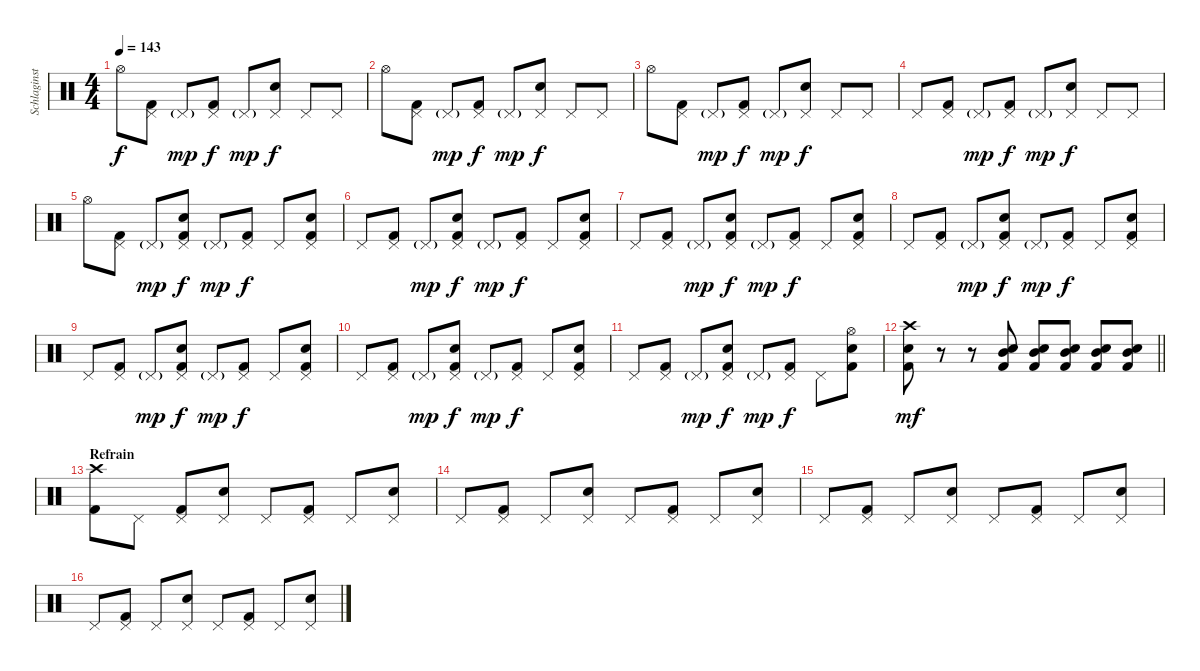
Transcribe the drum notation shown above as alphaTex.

\track ("Schlaginstrumente - Auswahl" "Schlaginst") {instrument percussion}
\staff {score}
\articulation defaults
\ts (4 4)
\tempo 143
\clef neutral
\ks c "Hi-Hat (open)".8{dy f}
("Pedal Hi-Hat (hit)" "Kick (hit) 2").8 "Pedal Hi-Hat (hit)"{g}.8{dy mp} ("Pedal Hi-Hat (hit)" "Kick (hit) 2").8{dy f} "Pedal Hi-Hat (hit)"{g}.8{dy mp} ("Pedal Hi-Hat (hit)" "Electric Snare (hit)").8{dy f} "Pedal Hi-Hat (hit)".8 "Pedal Hi-Hat (hit)".8 |
"Hi-Hat (open)".8 ("Pedal Hi-Hat (hit)" "Kick (hit) 2").8 "Pedal Hi-Hat (hit)"{g}.8{dy mp} ("Pedal Hi-Hat (hit)" "Kick (hit) 2").8{dy f} "Pedal Hi-Hat (hit)"{g}.8{dy mp} ("Pedal Hi-Hat (hit)" "Electric Snare (hit)").8{dy f} "Pedal Hi-Hat (hit)".8 "Pedal Hi-Hat (hit)".8 |
"Hi-Hat (open)".8 ("Pedal Hi-Hat (hit)" "Kick (hit) 2").8 "Pedal Hi-Hat (hit)"{g}.8{dy mp} ("Pedal Hi-Hat (hit)" "Kick (hit) 2").8{dy f} "Pedal Hi-Hat (hit)"{g}.8{dy mp} ("Pedal Hi-Hat (hit)" "Electric Snare (hit)").8{dy f} "Pedal Hi-Hat (hit)".8 "Pedal Hi-Hat (hit)".8 |
"Pedal Hi-Hat (hit)".8 ("Pedal Hi-Hat (hit)" "Kick (hit) 2").8 "Pedal Hi-Hat (hit)"{g}.8{dy mp} ("Pedal Hi-Hat (hit)" "Kick (hit) 2").8{dy f} "Pedal Hi-Hat (hit)"{g}.8{dy mp} ("Pedal Hi-Hat (hit)" "Electric Snare (hit)").8{dy f} "Pedal Hi-Hat (hit)".8 "Pedal Hi-Hat (hit)".8 |
"Hi-Hat (open)".8 ("Pedal Hi-Hat (hit)" "Kick (hit) 2").8 "Pedal Hi-Hat (hit)"{g}.8{dy mp} ("Pedal Hi-Hat (hit)" "Electric Snare (hit)" "Kick (hit) 2").8{dy f} "Pedal Hi-Hat (hit)"{g}.8{dy mp} ("Pedal Hi-Hat (hit)" "Kick (hit) 2").8{dy f} "Pedal Hi-Hat (hit)".8 ("Pedal Hi-Hat (hit)" "Electric Snare (hit)" "Kick (hit) 2").8 |
"Pedal Hi-Hat (hit)".8 ("Pedal Hi-Hat (hit)" "Kick (hit) 2").8 "Pedal Hi-Hat (hit)"{g}.8{dy mp} ("Pedal Hi-Hat (hit)" "Electric Snare (hit)" "Kick (hit) 2").8{dy f} "Pedal Hi-Hat (hit)"{g}.8{dy mp} ("Pedal Hi-Hat (hit)" "Kick (hit) 2").8{dy f} "Pedal Hi-Hat (hit)".8 ("Pedal Hi-Hat (hit)" "Electric Snare (hit)" "Kick (hit) 2").8 |
"Pedal Hi-Hat (hit)".8 ("Pedal Hi-Hat (hit)" "Kick (hit) 2").8 "Pedal Hi-Hat (hit)"{g}.8{dy mp} ("Pedal Hi-Hat (hit)" "Electric Snare (hit)" "Kick (hit) 2").8{dy f} "Pedal Hi-Hat (hit)"{g}.8{dy mp} ("Pedal Hi-Hat (hit)" "Kick (hit) 2").8{dy f} "Pedal Hi-Hat (hit)".8 ("Pedal Hi-Hat (hit)" "Electric Snare (hit)" "Kick (hit) 2").8 |
"Pedal Hi-Hat (hit)".8 ("Pedal Hi-Hat (hit)" "Kick (hit) 2").8 "Pedal Hi-Hat (hit)"{g}.8{dy mp} ("Pedal Hi-Hat (hit)" "Electric Snare (hit)" "Kick (hit) 2").8{dy f} "Pedal Hi-Hat (hit)"{g}.8{dy mp} ("Pedal Hi-Hat (hit)" "Kick (hit) 2").8{dy f} "Pedal Hi-Hat (hit)".8 ("Pedal Hi-Hat (hit)" "Electric Snare (hit)" "Kick (hit) 2").8 |
"Pedal Hi-Hat (hit)".8 ("Pedal Hi-Hat (hit)" "Kick (hit) 2").8 "Pedal Hi-Hat (hit)"{g}.8{dy mp} ("Pedal Hi-Hat (hit)" "Electric Snare (hit)" "Kick (hit) 2").8{dy f} "Pedal Hi-Hat (hit)"{g}.8{dy mp} ("Pedal Hi-Hat (hit)" "Kick (hit) 2").8{dy f} "Pedal Hi-Hat (hit)".8 ("Pedal Hi-Hat (hit)" "Electric Snare (hit)" "Kick (hit) 2").8 |
"Pedal Hi-Hat (hit)".8 ("Pedal Hi-Hat (hit)" "Kick (hit) 2").8 "Pedal Hi-Hat (hit)"{g}.8{dy mp} ("Pedal Hi-Hat (hit)" "Electric Snare (hit)" "Kick (hit) 2").8{dy f} "Pedal Hi-Hat (hit)"{g}.8{dy mp} ("Pedal Hi-Hat (hit)" "Kick (hit) 2").8{dy f} "Pedal Hi-Hat (hit)".8 ("Pedal Hi-Hat (hit)" "Electric Snare (hit)" "Kick (hit) 2").8 |
"Pedal Hi-Hat (hit)".8 ("Pedal Hi-Hat (hit)" "Kick (hit) 2").8 "Pedal Hi-Hat (hit)"{g}.8{dy mp} ("Pedal Hi-Hat (hit)" "Electric Snare (hit)" "Kick (hit) 2").8{dy f} "Pedal Hi-Hat (hit)"{g}.8{dy mp} ("Pedal Hi-Hat (hit)" "Kick (hit) 2").8{dy f} "Pedal Hi-Hat (hit)".8 ("Hi-Hat (open)" "Electric Snare (hit)" "Kick (hit) 2").8 |
\barLineRight lightlight
("Crash high (hit)" "Electric Snare (hit)" "Kick (hit) 2").8{dy mf} r.8 r.8 ("Mid Tom (hit)" "Electric Snare (hit)" "Kick (hit) 2").8 ("Mid Tom (hit)" "Electric Snare (hit)" "Kick (hit) 2").8 ("Mid Tom (hit)" "Electric Snare (hit)" "Kick (hit) 2").8 ("Mid Tom (hit)" "Electric Snare (hit)" "Kick (hit) 2").8 ("Mid Tom (hit)" "Electric Snare (hit)" "Kick (hit) 2").8 |
\section ("" "Refrain")
("Crash high (hit)" "Kick (hit) 2").8 "Pedal Hi-Hat (hit)".8 ("Pedal Hi-Hat (hit)" "Kick (hit) 2").8 ("Pedal Hi-Hat (hit)" "Electric Snare (hit)").8 "Pedal Hi-Hat (hit)".8 ("Pedal Hi-Hat (hit)" "Kick (hit) 2").8 "Pedal Hi-Hat (hit)".8 ("Pedal Hi-Hat (hit)" "Electric Snare (hit)").8 |
"Pedal Hi-Hat (hit)".8 ("Pedal Hi-Hat (hit)" "Kick (hit) 2").8 "Pedal Hi-Hat (hit)".8 ("Pedal Hi-Hat (hit)" "Electric Snare (hit)").8 "Pedal Hi-Hat (hit)".8 ("Pedal Hi-Hat (hit)" "Kick (hit) 2").8 "Pedal Hi-Hat (hit)".8 ("Pedal Hi-Hat (hit)" "Electric Snare (hit)").8 |
"Pedal Hi-Hat (hit)".8 ("Pedal Hi-Hat (hit)" "Kick (hit) 2").8 "Pedal Hi-Hat (hit)".8 ("Pedal Hi-Hat (hit)" "Electric Snare (hit)").8 "Pedal Hi-Hat (hit)".8 ("Pedal Hi-Hat (hit)" "Kick (hit) 2").8 "Pedal Hi-Hat (hit)".8 ("Pedal Hi-Hat (hit)" "Electric Snare (hit)").8 |
"Pedal Hi-Hat (hit)".8 ("Pedal Hi-Hat (hit)" "Kick (hit) 2").8 "Pedal Hi-Hat (hit)".8 ("Pedal Hi-Hat (hit)" "Electric Snare (hit)").8 "Pedal Hi-Hat (hit)".8 ("Pedal Hi-Hat (hit)" "Kick (hit) 2").8 "Pedal Hi-Hat (hit)".8 ("Pedal Hi-Hat (hit)" "Electric Snare (hit)").8
